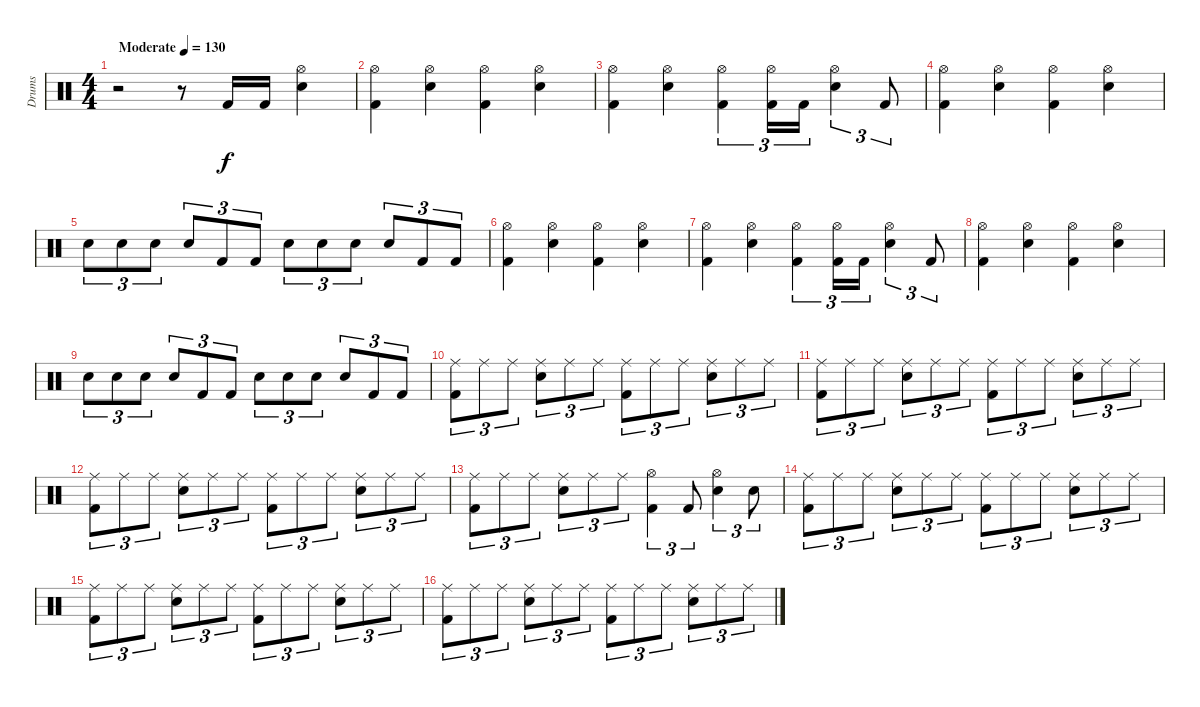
\track ("Drums" "Drums") {instrument percussion}
\staff {score}
\articulation defaults
\ts (4 4)
\tempo (130 "Moderate")
\clef neutral
\ks c
r.2{dy f} r.8 "Kick (hit) 2".16 "Kick (hit) 2".16 ("Hi-Hat (open)" "Electric Snare (hit)").4 |
("Hi-Hat (open)" "Kick (hit) 2").4 ("Hi-Hat (open)" "Electric Snare (hit)").4 ("Hi-Hat (open)" "Kick (hit) 2").4 ("Hi-Hat (open)" "Electric Snare (hit)").4 |
("Hi-Hat (open)" "Kick (hit) 2").4 ("Hi-Hat (open)" "Electric Snare (hit)").4 ("Hi-Hat (open)" "Kick (hit) 2").4{tu (3 2)} ("Hi-Hat (open)" "Kick (hit) 2").16{tu (3 2)} "Kick (hit) 2".16{tu (3 2)} ("Hi-Hat (open)" "Electric Snare (hit)").4{tu (3 2)} "Kick (hit) 2".8{tu (3 2)} |
("Hi-Hat (open)" "Kick (hit) 2").4 ("Hi-Hat (open)" "Electric Snare (hit)").4 ("Hi-Hat (open)" "Kick (hit) 2").4 ("Hi-Hat (open)" "Electric Snare (hit)").4 |
"Electric Snare (hit)".8{tu (3 2)} "Electric Snare (hit)".8{tu (3 2)} "Electric Snare (hit)".8{tu (3 2)} "Electric Snare (hit)".8{tu (3 2)} "Kick (hit) 2".8{tu (3 2)} "Kick (hit) 2".8{tu (3 2)} "Electric Snare (hit)".8{tu (3 2)} "Electric Snare (hit)".8{tu (3 2)} "Electric Snare (hit)".8{tu (3 2)} "Electric Snare (hit)".8{tu (3 2)} "Kick (hit) 2".8{tu (3 2)} "Kick (hit) 2".8{tu (3 2)} |
("Hi-Hat (open)" "Kick (hit) 2").4 ("Hi-Hat (open)" "Electric Snare (hit)").4 ("Hi-Hat (open)" "Kick (hit) 2").4 ("Hi-Hat (open)" "Electric Snare (hit)").4 |
("Hi-Hat (open)" "Kick (hit) 2").4 ("Hi-Hat (open)" "Electric Snare (hit)").4 ("Hi-Hat (open)" "Kick (hit) 2").4{tu (3 2)} ("Hi-Hat (open)" "Kick (hit) 2").16{tu (3 2)} "Kick (hit) 2".16{tu (3 2)} ("Hi-Hat (open)" "Electric Snare (hit)").4{tu (3 2)} "Kick (hit) 2".8{tu (3 2)} |
("Hi-Hat (open)" "Kick (hit) 2").4 ("Hi-Hat (open)" "Electric Snare (hit)").4 ("Hi-Hat (open)" "Kick (hit) 2").4 ("Hi-Hat (open)" "Electric Snare (hit)").4 |
"Electric Snare (hit)".8{tu (3 2)} "Electric Snare (hit)".8{tu (3 2)} "Electric Snare (hit)".8{tu (3 2)} "Electric Snare (hit)".8{tu (3 2)} "Kick (hit) 2".8{tu (3 2)} "Kick (hit) 2".8{tu (3 2)} "Electric Snare (hit)".8{tu (3 2)} "Electric Snare (hit)".8{tu (3 2)} "Electric Snare (hit)".8{tu (3 2)} "Electric Snare (hit)".8{tu (3 2)} "Kick (hit) 2".8{tu (3 2)} "Kick (hit) 2".8{tu (3 2)} |
("Ride (middle)" "Kick (hit) 2").8{tu (3 2)} "Ride (middle)".8{tu (3 2)} "Ride (middle)".8{tu (3 2)} ("Ride (middle)" "Electric Snare (hit)").8{tu (3 2)} "Ride (middle)".8{tu (3 2)} "Ride (middle)".8{tu (3 2)} ("Ride (middle)" "Kick (hit) 2").8{tu (3 2)} "Ride (middle)".8{tu (3 2)} "Ride (middle)".8{tu (3 2)} ("Ride (middle)" "Electric Snare (hit)").8{tu (3 2)} "Ride (middle)".8{tu (3 2)} "Ride (middle)".8{tu (3 2)} |
("Ride (middle)" "Kick (hit) 2").8{tu (3 2)} "Ride (middle)".8{tu (3 2)} "Ride (middle)".8{tu (3 2)} ("Ride (middle)" "Electric Snare (hit)").8{tu (3 2)} "Ride (middle)".8{tu (3 2)} "Ride (middle)".8{tu (3 2)} ("Ride (middle)" "Kick (hit) 2").8{tu (3 2)} "Ride (middle)".8{tu (3 2)} "Ride (middle)".8{tu (3 2)} ("Ride (middle)" "Electric Snare (hit)").8{tu (3 2)} "Ride (middle)".8{tu (3 2)} "Ride (middle)".8{tu (3 2)} |
("Ride (middle)" "Kick (hit) 2").8{tu (3 2)} "Ride (middle)".8{tu (3 2)} "Ride (middle)".8{tu (3 2)} ("Ride (middle)" "Electric Snare (hit)").8{tu (3 2)} "Ride (middle)".8{tu (3 2)} "Ride (middle)".8{tu (3 2)} ("Ride (middle)" "Kick (hit) 2").8{tu (3 2)} "Ride (middle)".8{tu (3 2)} "Ride (middle)".8{tu (3 2)} ("Ride (middle)" "Electric Snare (hit)").8{tu (3 2)} "Ride (middle)".8{tu (3 2)} "Ride (middle)".8{tu (3 2)} |
("Ride (middle)" "Kick (hit) 2").8{tu (3 2)} "Ride (middle)".8{tu (3 2)} "Ride (middle)".8{tu (3 2)} ("Ride (middle)" "Electric Snare (hit)").8{tu (3 2)} "Ride (middle)".8{tu (3 2)} "Ride (middle)".8{tu (3 2)} ("Hi-Hat (open)" "Kick (hit) 2").4{tu (3 2)} "Kick (hit) 2".8{tu (3 2)} ("Hi-Hat (open)" "Electric Snare (hit)").4{tu (3 2)} "Electric Snare (hit)".8{tu (3 2)} |
("Ride (middle)" "Kick (hit) 2").8{tu (3 2)} "Ride (middle)".8{tu (3 2)} "Ride (middle)".8{tu (3 2)} ("Ride (middle)" "Electric Snare (hit)").8{tu (3 2)} "Ride (middle)".8{tu (3 2)} "Ride (middle)".8{tu (3 2)} ("Ride (middle)" "Kick (hit) 2").8{tu (3 2)} "Ride (middle)".8{tu (3 2)} "Ride (middle)".8{tu (3 2)} ("Ride (middle)" "Electric Snare (hit)").8{tu (3 2)} "Ride (middle)".8{tu (3 2)} "Ride (middle)".8{tu (3 2)} |
("Ride (middle)" "Kick (hit) 2").8{tu (3 2)} "Ride (middle)".8{tu (3 2)} "Ride (middle)".8{tu (3 2)} ("Ride (middle)" "Electric Snare (hit)").8{tu (3 2)} "Ride (middle)".8{tu (3 2)} "Ride (middle)".8{tu (3 2)} ("Ride (middle)" "Kick (hit) 2").8{tu (3 2)} "Ride (middle)".8{tu (3 2)} "Ride (middle)".8{tu (3 2)} ("Ride (middle)" "Electric Snare (hit)").8{tu (3 2)} "Ride (middle)".8{tu (3 2)} "Ride (middle)".8{tu (3 2)} |
("Ride (middle)" "Kick (hit) 2").8{tu (3 2)} "Ride (middle)".8{tu (3 2)} "Ride (middle)".8{tu (3 2)} ("Ride (middle)" "Electric Snare (hit)").8{tu (3 2)} "Ride (middle)".8{tu (3 2)} "Ride (middle)".8{tu (3 2)} ("Ride (middle)" "Kick (hit) 2").8{tu (3 2)} "Ride (middle)".8{tu (3 2)} "Ride (middle)".8{tu (3 2)} ("Ride (middle)" "Electric Snare (hit)").8{tu (3 2)} "Ride (middle)".8{tu (3 2)} "Ride (middle)".8{tu (3 2)}
